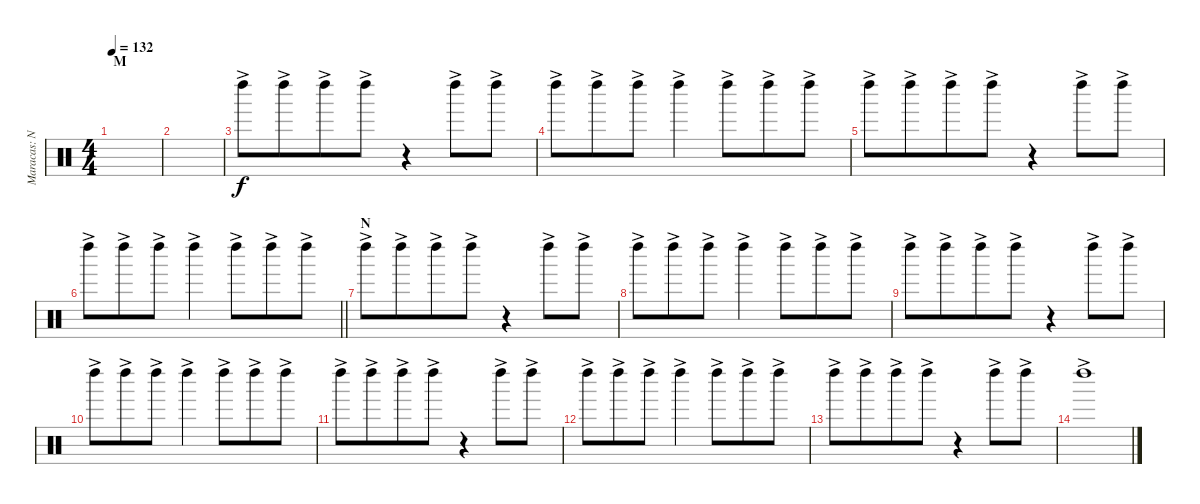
\track ("Maracas: Nigel Ollson" "Maracas: N") {instrument percussion}
\staff {score}
\articulation defaults
\ts (4 4)
\section ("" "M")
\tempo 132
\clef neutral
\ks c
|
|
"Left Maraca (hit)"{ac}.8 "Left Maraca (hit)"{ac}.8{beam merge} "Left Maraca (hit)"{ac}.8 "Left Maraca (hit)"{ac}.8 r.4 "Left Maraca (hit)"{ac}.8 "Left Maraca (hit)"{ac}.8 |
"Left Maraca (hit)"{ac}.8 "Left Maraca (hit)"{ac}.8{beam merge} "Left Maraca (hit)"{ac}.8 "Left Maraca (hit)"{ac}.4 "Left Maraca (hit)"{ac}.8{beam merge} "Left Maraca (hit)"{ac}.8 "Left Maraca (hit)"{ac}.8 |
"Left Maraca (hit)"{ac}.8 "Left Maraca (hit)"{ac}.8{beam merge} "Left Maraca (hit)"{ac}.8 "Left Maraca (hit)"{ac}.8 r.4 "Left Maraca (hit)"{ac}.8 "Left Maraca (hit)"{ac}.8 |
\barLineRight lightlight "Left Maraca (hit)"{ac}.8 "Left Maraca (hit)"{ac}.8{beam merge} "Left Maraca (hit)"{ac}.8 "Left Maraca (hit)"{ac}.4 "Left Maraca (hit)"{ac}.8{beam merge} "Left Maraca (hit)"{ac}.8 "Left Maraca (hit)"{ac}.8
|
\section ("" "N")
"Left Maraca (hit)"{ac}.8 "Left Maraca (hit)"{ac}.8{beam merge} "Left Maraca (hit)"{ac}.8 "Left Maraca (hit)"{ac}.8 r.4 "Left Maraca (hit)"{ac}.8 "Left Maraca (hit)"{ac}.8 |
"Left Maraca (hit)"{ac}.8 "Left Maraca (hit)"{ac}.8{beam merge} "Left Maraca (hit)"{ac}.8 "Left Maraca (hit)"{ac}.4 "Left Maraca (hit)"{ac}.8{beam merge} "Left Maraca (hit)"{ac}.8 "Left Maraca (hit)"{ac}.8 |
"Left Maraca (hit)"{ac}.8 "Left Maraca (hit)"{ac}.8{beam merge} "Left Maraca (hit)"{ac}.8 "Left Maraca (hit)"{ac}.8 r.4 "Left Maraca (hit)"{ac}.8 "Left Maraca (hit)"{ac}.8 |
"Left Maraca (hit)"{ac}.8 "Left Maraca (hit)"{ac}.8{beam merge} "Left Maraca (hit)"{ac}.8 "Left Maraca (hit)"{ac}.4 "Left Maraca (hit)"{ac}.8{beam merge} "Left Maraca (hit)"{ac}.8 "Left Maraca (hit)"{ac}.8 |
"Left Maraca (hit)"{ac}.8 "Left Maraca (hit)"{ac}.8{beam merge} "Left Maraca (hit)"{ac}.8 "Left Maraca (hit)"{ac}.8 r.4 "Left Maraca (hit)"{ac}.8 "Left Maraca (hit)"{ac}.8 |
"Left Maraca (hit)"{ac}.8 "Left Maraca (hit)"{ac}.8{beam merge} "Left Maraca (hit)"{ac}.8 "Left Maraca (hit)"{ac}.4 "Left Maraca (hit)"{ac}.8{beam merge} "Left Maraca (hit)"{ac}.8 "Left Maraca (hit)"{ac}.8 |
"Left Maraca (hit)"{ac}.8 "Left Maraca (hit)"{ac}.8{beam merge} "Left Maraca (hit)"{ac}.8 "Left Maraca (hit)"{ac}.8 r.4 "Left Maraca (hit)"{ac}.8 "Left Maraca (hit)"{ac}.8 |
"Left Maraca (hit)"{ac}.1
